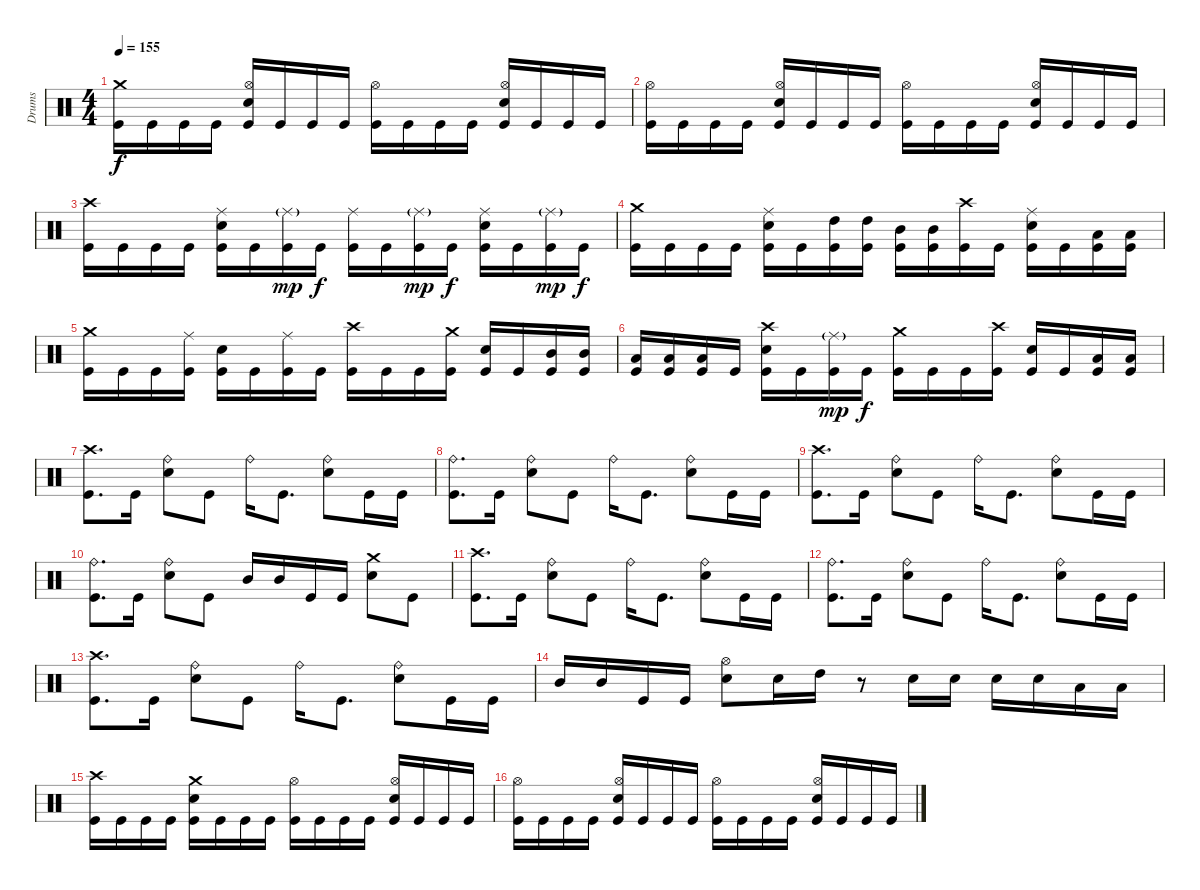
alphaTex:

\track ("Drums" "Drums") {instrument percussion}
\staff {score}
\articulation defaults
\ts (4 4)
\tempo 155
\clef neutral
\ks c
("Crash medium (hit)" "Kick (hit)").16{dy f} "Kick (hit)".16 "Kick (hit)".16 "Kick (hit)".16 ("Hi-Hat (open)" "Snare (hit) 2" "Kick (hit)").16 "Kick (hit)".16 "Kick (hit)".16 "Kick (hit)".16 ("Hi-Hat (open)" "Kick (hit)").16 "Kick (hit)".16 "Kick (hit)".16 "Kick (hit)".16 ("Hi-Hat (open)" "Snare (hit) 2" "Kick (hit)").16 "Kick (hit)".16 "Kick (hit)".16 "Kick (hit)".16 |
("Hi-Hat (open)" "Kick (hit)").16 "Kick (hit)".16 "Kick (hit)".16 "Kick (hit)".16 ("Hi-Hat (open)" "Snare (hit) 2" "Kick (hit)").16 "Kick (hit)".16 "Kick (hit)".16 "Kick (hit)".16 ("Hi-Hat (open)" "Kick (hit)").16 "Kick (hit)".16 "Kick (hit)".16 "Kick (hit)".16 ("Hi-Hat (open)" "Snare (hit) 2" "Kick (hit)").16 "Kick (hit)".16 "Kick (hit)".16 "Kick (hit)".16 |
("Crash high (hit)" "Kick (hit)").16 "Kick (hit)".16 "Kick (hit)".16 "Kick (hit)".16 ("Ride (middle)" "Snare (hit) 2" "Kick (hit)").16 "Kick (hit)".16 ("Ride (middle)"{g} "Kick (hit)").16{dy mp} "Kick (hit)".16{dy f} ("Ride (middle)" "Kick (hit)").16 "Kick (hit)".16 ("Ride (middle)"{g} "Kick (hit)").16{dy mp} "Kick (hit)".16{dy f} ("Ride (middle)" "Snare (hit) 2" "Kick (hit)").16 "Kick (hit)".16 ("Ride (middle)"{g} "Kick (hit)").16{dy mp} "Kick (hit)".16{dy f} |
("Crash medium (hit)" "Kick (hit)").16 "Kick (hit)".16 "Kick (hit)".16 "Kick (hit)".16 ("Ride (middle)" "Snare (hit) 2" "Kick (hit)").16 "Kick (hit)".16 ("High Tom (hit)" "Kick (hit)").16 ("High Tom (hit)" "Kick (hit)").16 ("Mid Tom (hit)" "Kick (hit)").16 ("Mid Tom (hit)" "Kick (hit)").16 ("Crash high (hit)" "Kick (hit)").16 "Kick (hit)".16 ("Ride (middle)" "Snare (hit) 2" "Kick (hit)").16 "Kick (hit)".16 ("Low Tom (hit)" "Kick (hit)").16 ("Low Tom (hit)" "Kick (hit)").16 |
("Crash medium (hit)" "Kick (hit)").16 "Kick (hit)".16 "Kick (hit)".16 ("Ride (middle)" "Kick (hit)").16 ("Snare (hit) 2" "Kick (hit)").16 "Kick (hit)".16 ("Ride (middle)" "Kick (hit)").16 "Kick (hit)".16 ("Crash high (hit)" "Kick (hit)").16 "Kick (hit)".16 "Kick (hit)".16 ("Crash medium (hit)" "Kick (hit)").16 ("Snare (hit) 2" "Kick (hit)").16 "Kick (hit)".16 ("Mid Tom (hit)" "Kick (hit)").16 ("Mid Tom (hit)" "Kick (hit)").16 |
("Low Tom (hit)" "Kick (hit)").16 ("Low Tom (hit)" "Kick (hit)").16 ("Low Tom (hit)" "Kick (hit)").16 "Kick (hit)".16 ("Crash high (hit)" "Snare (hit) 2" "Kick (hit)").16 "Kick (hit)".16 ("Ride (middle)"{g} "Kick (hit)").16{dy mp} "Kick (hit)".16{dy f} ("Crash medium (hit)" "Kick (hit)").16 "Kick (hit)".16 "Kick (hit)".16 ("Crash high (hit)" "Kick (hit)").16 ("Snare (hit) 2" "Kick (hit)").16 "Kick (hit)".16 ("Low Tom (hit)" "Kick (hit)").16 ("Low Tom (hit)" "Kick (hit)").16 |
("Crash high (hit)" "Kick (hit)").8{d} "Kick (hit)".16 ("Ride (bell)" "Snare (hit) 2").8 "Kick (hit)".8 "Ride (bell)".16 "Kick (hit)".8{d} ("Ride (bell)" "Snare (hit) 2").8 "Kick (hit)".16 "Kick (hit)".16 |
("Ride (bell)" "Kick (hit)").8{d} "Kick (hit)".16 ("Ride (bell)" "Snare (hit) 2").8 "Kick (hit)".8 "Ride (bell)".16 "Kick (hit)".8{d} ("Ride (bell)" "Snare (hit) 2").8 "Kick (hit)".16 "Kick (hit)".16 |
("Crash high (hit)" "Kick (hit)").8{d} "Kick (hit)".16 ("Ride (bell)" "Snare (hit) 2").8 "Kick (hit)".8 "Ride (bell)".16 "Kick (hit)".8{d} ("Ride (bell)" "Snare (hit) 2").8 "Kick (hit)".16 "Kick (hit)".16 |
("Ride (bell)" "Kick (hit)").8{d} "Kick (hit)".16 ("Ride (bell)" "Snare (hit) 2").8 "Kick (hit)".8 "Mid Tom (hit)".16 "Mid Tom (hit)".16 "Kick (hit)".16 "Kick (hit)".16 ("Crash medium (hit)" "Snare (hit) 2").8 "Kick (hit)".8 |
("Crash high (hit)" "Kick (hit)").8{d} "Kick (hit)".16 ("Ride (bell)" "Snare (hit) 2").8 "Kick (hit)".8 "Ride (bell)".16 "Kick (hit)".8{d} ("Ride (bell)" "Snare (hit) 2").8 "Kick (hit)".16 "Kick (hit)".16 |
("Ride (bell)" "Kick (hit)").8{d} "Kick (hit)".16 ("Ride (bell)" "Snare (hit) 2").8 "Kick (hit)".8 "Ride (bell)".16 "Kick (hit)".8{d} ("Ride (bell)" "Snare (hit) 2").8 "Kick (hit)".16 "Kick (hit)".16 |
("Crash high (hit)" "Kick (hit)").8{d} "Kick (hit)".16 ("Ride (bell)" "Snare (hit) 2").8 "Kick (hit)".8 "Ride (bell)".16 "Kick (hit)".8{d} ("Ride (bell)" "Snare (hit) 2").8 "Kick (hit)".16 "Kick (hit)".16 |
"Mid Tom (hit)".16 "Mid Tom (hit)".16 "Kick (hit)".16 "Kick (hit)".16 ("Hi-Hat (open)" "Snare (hit) 2").8 "Snare (hit) 2".16 "High Tom (hit)".16 r.8 "Snare (hit) 2".16 "Snare (hit) 2".16 "Snare (hit) 2".16 "Snare (hit) 2".16 "Low Tom (hit)".16 "Low Tom (hit)".16 |
("Crash high (hit)" "Kick (hit)").16 "Kick (hit)".16 "Kick (hit)".16 "Kick (hit)".16 ("Crash medium (hit)" "Snare (hit) 2" "Kick (hit)").16 "Kick (hit)".16 "Kick (hit)".16 "Kick (hit)".16 ("Hi-Hat (open)" "Kick (hit)").16 "Kick (hit)".16 "Kick (hit)".16 "Kick (hit)".16 ("Hi-Hat (open)" "Snare (hit) 2" "Kick (hit)").16 "Kick (hit)".16 "Kick (hit)".16 "Kick (hit)".16 |
("Hi-Hat (open)" "Kick (hit)").16 "Kick (hit)".16 "Kick (hit)".16 "Kick (hit)".16 ("Hi-Hat (open)" "Snare (hit) 2" "Kick (hit)").16 "Kick (hit)".16 "Kick (hit)".16 "Kick (hit)".16 ("Hi-Hat (open)" "Kick (hit)").16 "Kick (hit)".16 "Kick (hit)".16 "Kick (hit)".16 ("Hi-Hat (open)" "Snare (hit) 2" "Kick (hit)").16 "Kick (hit)".16 "Kick (hit)".16 "Kick (hit)".16
